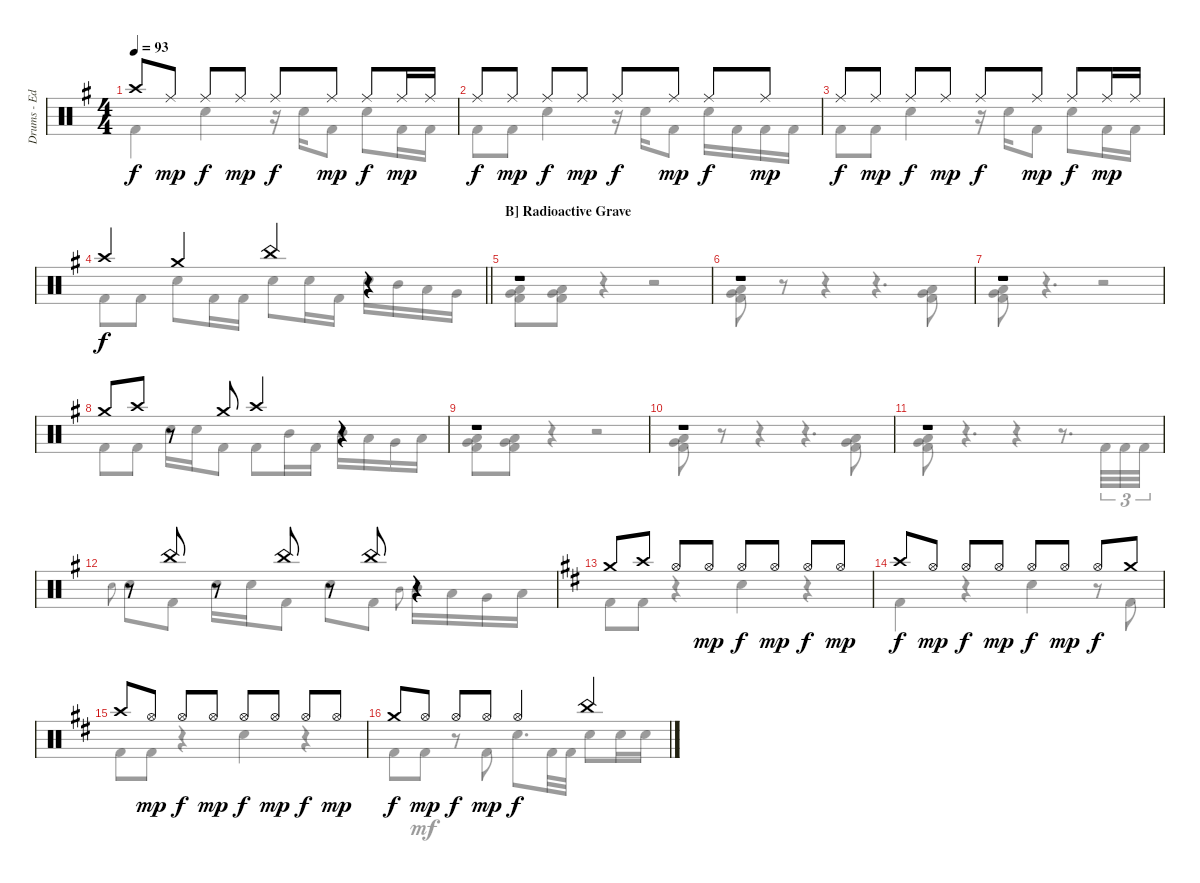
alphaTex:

\track ("Drums - Ed Warby" "Drums - Ed") {instrument percussion}
\staff {score}
\articulation defaults
\voice
\ts (4 4)
\tempo 93
\clef neutral
\ks eminor "Crash high (hit)".8{dy f} "Ride (middle)".8{dy mp} "Ride (middle)".8{dy f} "Ride (middle)".8{dy mp} "Ride (middle)".8{dy f} "Ride (middle)".8{dy mp} "Ride (middle)".8{dy f} "Ride (middle)".16{dy mp} "Ride (middle)".16
|
"Ride (middle)".8{dy f} "Ride (middle)".8{dy mp} "Ride (middle)".8{dy f} "Ride (middle)".8{dy mp} "Ride (middle)".8{dy f} "Ride (middle)".8{dy mp} "Ride (middle)".8{dy f} "Ride (middle)".8{dy mp} |
"Ride (middle)".8{dy f} "Ride (middle)".8{dy mp} "Ride (middle)".8{dy f} "Ride (middle)".8{dy mp} "Ride (middle)".8{dy f} "Ride (middle)".8{dy mp} "Ride (middle)".8{dy f} "Ride (middle)".16{dy mp} "Ride (middle)".16 |
\barLineRight lightlight "Crash high (hit)".4{dy f} "Crash medium (hit)".4 "China (hit)".4
r.4 |
\section ("" "B] Radioactive Grave")
r.1 |
r.1 |
r.1 |
"Crash medium (hit)".8 "Crash high (hit)".8 r.8 "Crash medium (hit)".8 "Crash high (hit)".4 r.4 |
r.1 |
r.1 |
r.1 |
r.8 "China (hit)".8 r.8 "China (hit)".8 r.8 "China (hit)".8 r.4 |
\ks bminor "Crash medium (hit)".8 "Crash high (hit)".8 "Hi-Hat (open)".8 "Hi-Hat (open)".8{dy mp} "Hi-Hat (open)".8{dy f} "Hi-Hat (open)".8{dy mp} "Hi-Hat (open)".8{dy f} "Hi-Hat (open)".8{dy mp}
|
"Crash high (hit)".8{dy f} "Hi-Hat (open)".8{dy mp} "Hi-Hat (open)".8{dy f} "Hi-Hat (open)".8{dy mp} "Hi-Hat (open)".8{dy f} "Hi-Hat (open)".8{dy mp} "Hi-Hat (open)".8{dy f} "Crash medium (hit)".8 |
"Crash high (hit)".8 "Hi-Hat (open)".8{dy mp} "Hi-Hat (open)".8{dy f} "Hi-Hat (open)".8{dy mp} "Hi-Hat (open)".8{dy f} "Hi-Hat (open)".8{dy mp} "Hi-Hat (open)".8{dy f} "Hi-Hat (open)".8{dy mp} |
"Crash medium (hit)".8{dy f} "Hi-Hat (open)".8{dy mp} "Hi-Hat (open)".8{dy f} "Hi-Hat (open)".8{dy mp} "Hi-Hat (open)".4{dy f} "China (hit)".4
\voice
\clef neutral
\ottava regular
\simile none
\ks eminor "Kick (hit) 2".4{dy f} "Snare (hit) 2".4
r.16 "Snare (hit) 2".16 "Kick (hit) 2".8 "Snare (hit) 2".8 "Kick (hit) 2".16 "Kick (hit) 2".16 |
"Kick (hit) 2".8 "Kick (hit) 2".8 "Snare (hit) 2".4 r.16 "Snare (hit) 2".16 "Kick (hit) 2".8 "Snare (hit) 2".16 "Kick (hit) 2".16 "Kick (hit) 2".16 "Kick (hit) 2".16 |
"Kick (hit) 2".8 "Kick (hit) 2".8 "Snare (hit) 2".4 r.16 "Snare (hit) 2".16 "Kick (hit) 2".8 "Snare (hit) 2".8 "Kick (hit) 2".16 "Kick (hit) 2".16 |
\barLineRight lightlight "Kick (hit) 2".8 "Kick (hit) 2".8 "Snare (hit) 2".8 "Kick (hit) 2".16 "Kick (hit) 2".16 "Snare (hit) 2".8 "Snare (hit) 2".16 "Kick (hit) 2".16 "Snare (hit) 2".16 "Mid Tom (hit)".16 "Low Tom (hit)".16 "Very Low Tom (hit)".16
|
("Very Low Tom (hit)" "Low Floor Tom (hit)" "Kick (hit) 2").8 ("Very Low Tom (hit)" "Low Floor Tom (hit)" "Kick (hit) 2").8 r.4 r.2 |
("Very Low Tom (hit)" "Low Floor Tom (hit)" "Kick (hit) 2").8 r.8 r.4 r.4{d} ("Very Low Tom (hit)" "Low Floor Tom (hit)" "Kick (hit) 2").8 |
("Very Low Tom (hit)" "Low Floor Tom (hit)" "Kick (hit) 2").8 r.4{d} r.2 |
"Kick (hit) 2".8 "Kick (hit) 2".8 "Snare (hit) 2".16 "Snare (hit) 2".16 "Kick (hit) 2".8 "Kick (hit) 2".8 "Mid Tom (hit)".16 "Kick (hit) 2".16 "Mid Tom (hit)".16 "Low Tom (hit)".16 "Very Low Tom (hit)".16 "Low Floor Tom (hit)".16 |
("Very Low Tom (hit)" "Low Floor Tom (hit)" "Kick (hit) 2").8 ("Very Low Tom (hit)" "Low Floor Tom (hit)" "Kick (hit) 2").8 r.4 r.2 |
("Very Low Tom (hit)" "Low Floor Tom (hit)" "Kick (hit) 2").8 r.8 r.4 r.4{d} ("Very Low Tom (hit)" "Low Floor Tom (hit)" "Kick (hit) 2").8 |
("Very Low Tom (hit)" "Low Floor Tom (hit)" "Kick (hit) 2").8 r.4{d} r.4 r.8{d} "Kick (hit) 2".32{tu (3 2)} "Kick (hit) 2".32{tu (3 2)} "Kick (hit) 2".32{tu (3 2)} |
"Snare (hit) 2".8{gr onbeat} "Snare (hit) 2".8 "Kick (hit) 2".8 "Snare (hit) 2".16 "Snare (hit) 2".16 "Kick (hit) 2".8 "Snare (hit) 2".8 "Kick (hit) 2".8 "Mid Tom (hit)".8{gr onbeat} "Mid Tom (hit)".16 "Low Tom (hit)".16 "Very Low Tom (hit)".16 "Low Floor Tom (hit)".16 |
\ks bminor "Kick (hit) 2".8 "Kick (hit) 2".8
r.4 "Snare (hit) 2".4 r.4 |
"Kick (hit) 2".4 r.4 "Snare (hit) 2".4 r.8 "Kick (hit) 2".8 |
"Kick (hit) 2".8 "Kick (hit) 2".8{dy mp} r.4 "Snare (hit) 2".4{dy f} r.4 |
"Kick (hit) 2".8 "Kick (hit) 2".8{dy mf} r.8 "Kick (hit) 2".8 "Snare (hit) 2".8{d} "Kick (hit) 2".32 "Kick (hit) 2".32 "Snare (hit) 2".8 "Snare (hit) 2".16 "Snare (hit) 2".16
